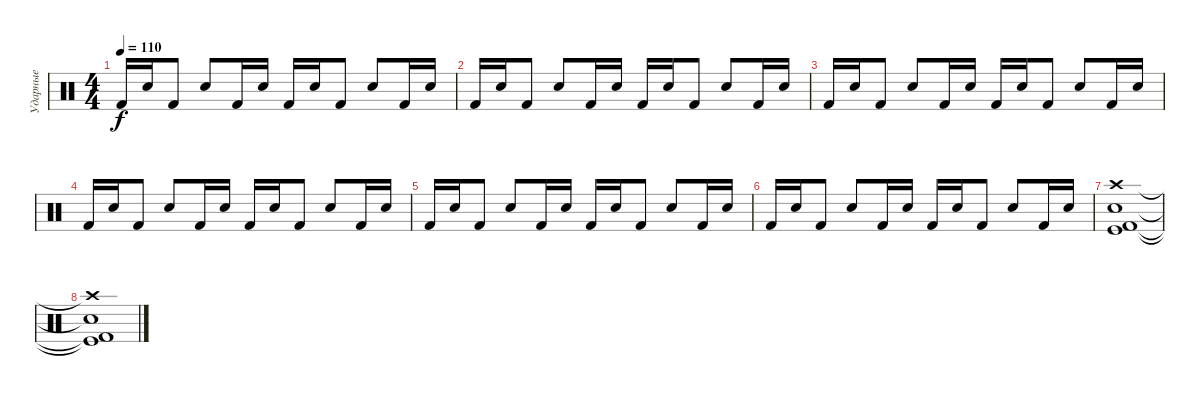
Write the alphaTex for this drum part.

\track ("Ударные" "Ударные") {instrument percussion}
\staff {score}
\articulation defaults
\ts (4 4)
\tempo 110
\clef neutral
\ks c "Kick (hit) 2".16{dy f} "Electric Snare (hit)".16 "Kick (hit) 2".8 "Electric Snare (hit)".8 "Kick (hit) 2".16 "Electric Snare (hit)".16 "Kick (hit) 2".16 "Electric Snare (hit)".16 "Kick (hit) 2".8 "Electric Snare (hit)".8 "Kick (hit) 2".16 "Electric Snare (hit)".16
|
"Kick (hit) 2".16 "Electric Snare (hit)".16 "Kick (hit) 2".8 "Electric Snare (hit)".8 "Kick (hit) 2".16 "Electric Snare (hit)".16 "Kick (hit) 2".16 "Electric Snare (hit)".16 "Kick (hit) 2".8 "Electric Snare (hit)".8 "Kick (hit) 2".16 "Electric Snare (hit)".16 |
"Kick (hit) 2".16 "Electric Snare (hit)".16 "Kick (hit) 2".8 "Electric Snare (hit)".8 "Kick (hit) 2".16 "Electric Snare (hit)".16 "Kick (hit) 2".16 "Electric Snare (hit)".16 "Kick (hit) 2".8 "Electric Snare (hit)".8 "Kick (hit) 2".16 "Electric Snare (hit)".16 |
"Kick (hit) 2".16 "Electric Snare (hit)".16 "Kick (hit) 2".8 "Electric Snare (hit)".8 "Kick (hit) 2".16 "Electric Snare (hit)".16 "Kick (hit) 2".16 "Electric Snare (hit)".16 "Kick (hit) 2".8 "Electric Snare (hit)".8 "Kick (hit) 2".16 "Electric Snare (hit)".16 |
"Kick (hit) 2".16 "Electric Snare (hit)".16 "Kick (hit) 2".8 "Electric Snare (hit)".8 "Kick (hit) 2".16 "Electric Snare (hit)".16 "Kick (hit) 2".16 "Electric Snare (hit)".16 "Kick (hit) 2".8 "Electric Snare (hit)".8 "Kick (hit) 2".16 "Electric Snare (hit)".16 |
"Kick (hit) 2".16 "Electric Snare (hit)".16 "Kick (hit) 2".8 "Electric Snare (hit)".8 "Kick (hit) 2".16 "Electric Snare (hit)".16 "Kick (hit) 2".16 "Electric Snare (hit)".16 "Kick (hit) 2".8 "Electric Snare (hit)".8 "Kick (hit) 2".16 "Electric Snare (hit)".16 |
("Crash high (hit)" "Kick (hit) 2" "Kick (hit)" "Electric Snare (hit)").1 |
("Crash high (hit)"{t} "Kick (hit) 2"{t} "Kick (hit)"{t} "Electric Snare (hit)"{t}).1
